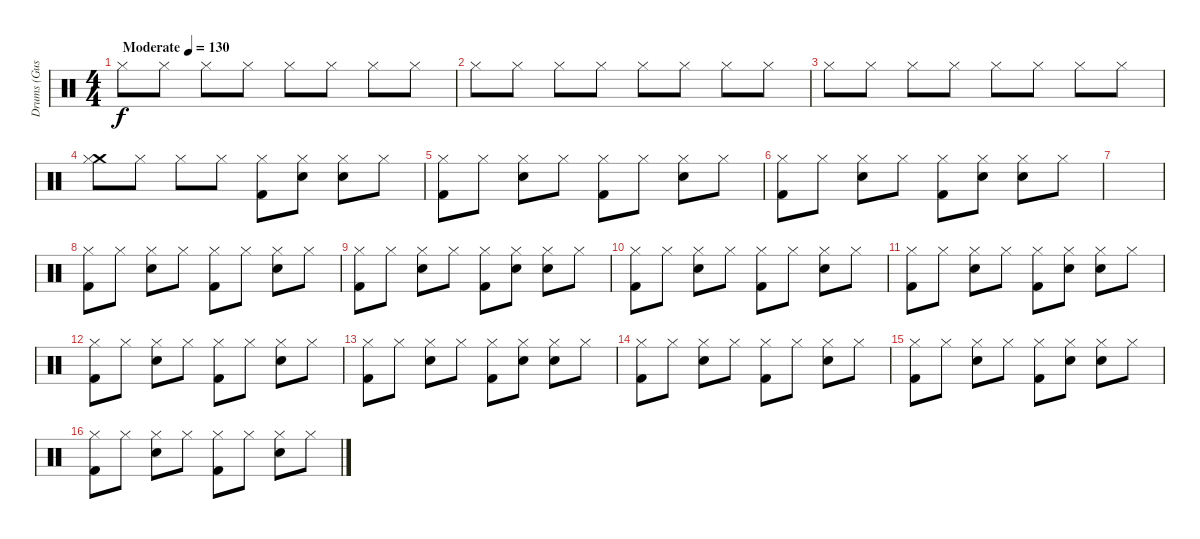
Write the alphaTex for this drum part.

\track ("Drums (Gustav) " "Drums (Gus") {instrument percussion}
\staff {score}
\articulation defaults
\ts (4 4)
\tempo (130 "Moderate")
\clef neutral
\ks c "Hi-Hat (closed)".8{dy f} "Hi-Hat (closed)".8 "Hi-Hat (closed)".8 "Hi-Hat (closed)".8 "Hi-Hat (closed)".8 "Hi-Hat (closed)".8 "Hi-Hat (closed)".8 "Hi-Hat (closed)".8
|
"Hi-Hat (closed)".8 "Hi-Hat (closed)".8 "Hi-Hat (closed)".8 "Hi-Hat (closed)".8 "Hi-Hat (closed)".8 "Hi-Hat (closed)".8 "Hi-Hat (closed)".8 "Hi-Hat (closed)".8 |
"Hi-Hat (closed)".8 "Hi-Hat (closed)".8 "Hi-Hat (closed)".8 "Hi-Hat (closed)".8 "Hi-Hat (closed)".8 "Hi-Hat (closed)".8 "Hi-Hat (closed)".8 "Hi-Hat (closed)".8 |
("Crash medium (hit)" "Hi-Hat (closed)").8 "Hi-Hat (closed)".8 "Hi-Hat (closed)".8 "Hi-Hat (closed)".8 ("Kick (hit) 2" "Hi-Hat (closed)").8 ("Snare (hit) 2" "Hi-Hat (closed)").8 ("Snare (hit) 2" "Hi-Hat (closed)").8 "Hi-Hat (closed)".8 |
("Kick (hit) 2" "Hi-Hat (closed)").8 "Hi-Hat (closed)".8 ("Snare (hit) 2" "Hi-Hat (closed)").8 "Hi-Hat (closed)".8 ("Kick (hit) 2" "Hi-Hat (closed)").8 "Hi-Hat (closed)".8 ("Snare (hit) 2" "Hi-Hat (closed)").8 "Hi-Hat (closed)".8 |
("Kick (hit) 2" "Hi-Hat (closed)").8 "Hi-Hat (closed)".8 ("Snare (hit) 2" "Hi-Hat (closed)").8 "Hi-Hat (closed)".8 ("Kick (hit) 2" "Hi-Hat (closed)").8 ("Snare (hit) 2" "Hi-Hat (closed)").8 ("Snare (hit) 2" "Hi-Hat (closed)").8 "Hi-Hat (closed)".8 |
|
("Kick (hit) 2" "Hi-Hat (closed)").8 "Hi-Hat (closed)".8 ("Snare (hit) 2" "Hi-Hat (closed)").8 "Hi-Hat (closed)".8 ("Kick (hit) 2" "Hi-Hat (closed)").8 "Hi-Hat (closed)".8 ("Snare (hit) 2" "Hi-Hat (closed)").8 "Hi-Hat (closed)".8 |
("Kick (hit) 2" "Hi-Hat (closed)").8 "Hi-Hat (closed)".8 ("Snare (hit) 2" "Hi-Hat (closed)").8 "Hi-Hat (closed)".8 ("Kick (hit) 2" "Hi-Hat (closed)").8 ("Snare (hit) 2" "Hi-Hat (closed)").8 ("Snare (hit) 2" "Hi-Hat (closed)").8 "Hi-Hat (closed)".8 |
("Kick (hit) 2" "Hi-Hat (closed)").8 "Hi-Hat (closed)".8 ("Snare (hit) 2" "Hi-Hat (closed)").8 "Hi-Hat (closed)".8 ("Kick (hit) 2" "Hi-Hat (closed)").8 "Hi-Hat (closed)".8 ("Snare (hit) 2" "Hi-Hat (closed)").8 "Hi-Hat (closed)".8 |
("Kick (hit) 2" "Hi-Hat (closed)").8 "Hi-Hat (closed)".8 ("Snare (hit) 2" "Hi-Hat (closed)").8 "Hi-Hat (closed)".8 ("Kick (hit) 2" "Hi-Hat (closed)").8 ("Snare (hit) 2" "Hi-Hat (closed)").8 ("Snare (hit) 2" "Hi-Hat (closed)").8 "Hi-Hat (closed)".8 |
("Kick (hit) 2" "Hi-Hat (closed)").8 "Hi-Hat (closed)".8 ("Snare (hit) 2" "Hi-Hat (closed)").8 "Hi-Hat (closed)".8 ("Kick (hit) 2" "Hi-Hat (closed)").8 "Hi-Hat (closed)".8 ("Snare (hit) 2" "Hi-Hat (closed)").8 "Hi-Hat (closed)".8 |
("Kick (hit) 2" "Hi-Hat (closed)").8 "Hi-Hat (closed)".8 ("Snare (hit) 2" "Hi-Hat (closed)").8 "Hi-Hat (closed)".8 ("Kick (hit) 2" "Hi-Hat (closed)").8 ("Snare (hit) 2" "Hi-Hat (closed)").8 ("Snare (hit) 2" "Hi-Hat (closed)").8 "Hi-Hat (closed)".8 |
("Kick (hit) 2" "Hi-Hat (closed)").8 "Hi-Hat (closed)".8 ("Snare (hit) 2" "Hi-Hat (closed)").8 "Hi-Hat (closed)".8 ("Kick (hit) 2" "Hi-Hat (closed)").8 "Hi-Hat (closed)".8 ("Snare (hit) 2" "Hi-Hat (closed)").8 "Hi-Hat (closed)".8 |
("Kick (hit) 2" "Hi-Hat (closed)").8 "Hi-Hat (closed)".8 ("Snare (hit) 2" "Hi-Hat (closed)").8 "Hi-Hat (closed)".8 ("Kick (hit) 2" "Hi-Hat (closed)").8 ("Snare (hit) 2" "Hi-Hat (closed)").8 ("Snare (hit) 2" "Hi-Hat (closed)").8 "Hi-Hat (closed)".8 |
("Kick (hit) 2" "Hi-Hat (closed)").8 "Hi-Hat (closed)".8 ("Snare (hit) 2" "Hi-Hat (closed)").8 "Hi-Hat (closed)".8 ("Kick (hit) 2" "Hi-Hat (closed)").8 "Hi-Hat (closed)".8 ("Snare (hit) 2" "Hi-Hat (closed)").8 "Hi-Hat (closed)".8
